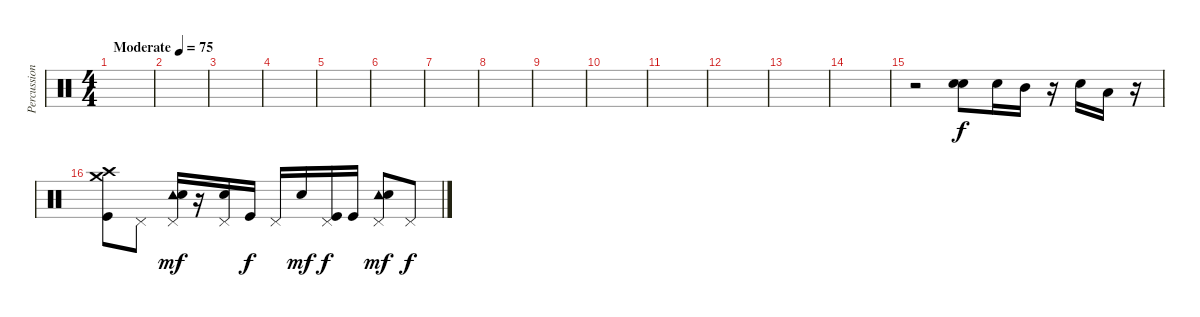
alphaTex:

\track ("Percussions" "Percussion") {instrument percussion}
\staff {score}
\articulation defaults
\ts (4 4)
\tempo (75 "Moderate")
\clef neutral
\ks c
|
|
|
|
|
|
|
|
|
|
|
|
|
|
r.2 ("Electric Snare (hit)" "Electric Snare (hit)").8{bu 120} "Electric Snare (hit)".16 "Mid Tom (hit)".16 r.16 "Electric Snare (hit)".16 "Low Tom (hit)".16 r.16 |
("Crash medium (hit)" "Crash high (hit)" "Kick (hit)").8 "Pedal Hi-Hat (hit)".8 ("Pedal Hi-Hat (hit)" "Tambourine (hit)" "Electric Snare (hit)").16{dy mf} r.16 ("Pedal Hi-Hat (hit)" "Electric Snare (hit)").16 "Kick (hit)".16{dy f} "Pedal Hi-Hat (hit)".16 "Electric Snare (hit)".16{dy mf} ("Pedal Hi-Hat (hit)" "Kick (hit)").16{dy f} "Kick (hit)".16 ("Pedal Hi-Hat (hit)" "Tambourine (hit)" "Electric Snare (hit)").8{dy mf} "Pedal Hi-Hat (hit)".8{dy f}
